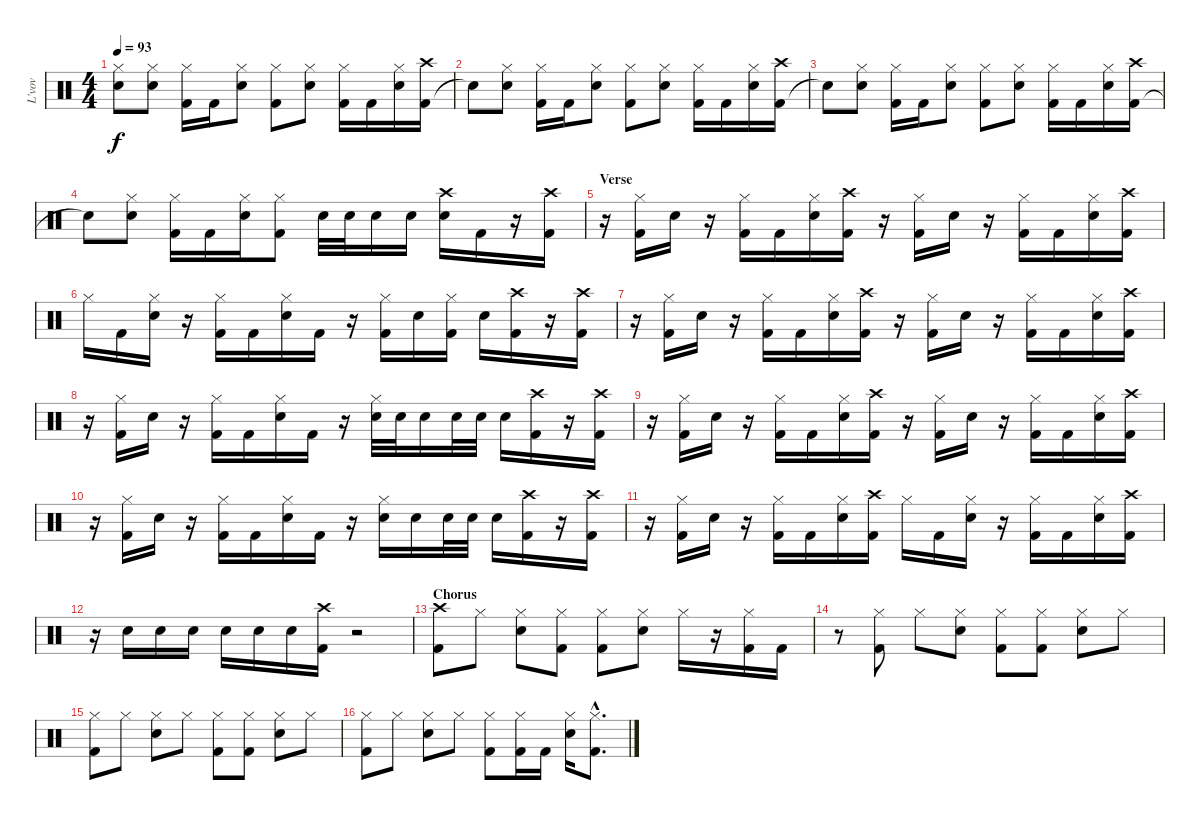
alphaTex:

\track ("L'vov" "L'vov") {instrument percussion}
\staff {score}
\articulation defaults
\ts (4 4)
\tempo 93
\clef neutral
\ks c
("Snare (hit)"{t} "Hi-Hat (closed)").8{dy f} ("Snare (hit) 2" "Hi-Hat (closed)").8 ("Kick (hit) 2" "Hi-Hat (closed)").16 "Kick (hit) 2".16 ("Snare (hit) 2" "Hi-Hat (closed)").8 ("Kick (hit) 2" "Hi-Hat (closed)").8 ("Snare (hit) 2" "Hi-Hat (closed)").8 ("Kick (hit) 2" "Hi-Hat (closed)").16 "Kick (hit) 2".16 ("Snare (hit) 2" "Hi-Hat (closed)").16 ("Kick (hit) 2" "Crash high (hit)").16 |
"Snare (hit)"{t}.8 ("Snare (hit) 2" "Hi-Hat (closed)").8 ("Kick (hit) 2" "Hi-Hat (closed)").16 "Kick (hit) 2".16 ("Snare (hit) 2" "Hi-Hat (closed)").8 ("Kick (hit) 2" "Hi-Hat (closed)").8 ("Snare (hit) 2" "Hi-Hat (closed)").8 ("Kick (hit) 2" "Hi-Hat (closed)").16 "Kick (hit) 2".16 ("Snare (hit) 2" "Hi-Hat (closed)").16 ("Kick (hit) 2" "Crash high (hit)").16 |
"Snare (hit)"{t}.8 ("Snare (hit) 2" "Hi-Hat (closed)").8 ("Kick (hit) 2" "Hi-Hat (closed)").16 "Kick (hit) 2".16 ("Snare (hit) 2" "Hi-Hat (closed)").8 ("Kick (hit) 2" "Hi-Hat (closed)").8 ("Snare (hit) 2" "Hi-Hat (closed)").8 ("Kick (hit) 2" "Hi-Hat (closed)").16 "Kick (hit) 2".16 ("Snare (hit) 2" "Hi-Hat (closed)").16 ("Kick (hit) 2" "Crash high (hit)").16 |
"Snare (hit)"{t}.8 ("Snare (hit) 2" "Hi-Hat (closed)").8 ("Kick (hit) 2" "Hi-Hat (closed)").16 "Kick (hit) 2".16 ("Snare (hit) 2" "Hi-Hat (closed)").16 ("Kick (hit) 2" "Hi-Hat (closed)").8 "Snare (hit) 2".32 "Snare (hit) 2".32 "Snare (hit) 2".16 "Snare (hit) 2".16 ("Snare (hit) 2" "Crash high (hit)").16 "Kick (hit) 2".16 r.16 ("Kick (hit) 2" "Crash high (hit)").16 |
\section ("" "Verse")
r.16 ("Kick (hit) 2" "Hi-Hat (closed)").16 "Snare (hit) 2".16 r.16 ("Kick (hit) 2" "Hi-Hat (closed)").16 "Kick (hit) 2".16 ("Snare (hit) 2" "Hi-Hat (closed)").16 ("Kick (hit) 2" "Crash high (hit)").16 r.16 ("Kick (hit) 2" "Hi-Hat (closed)").16 "Snare (hit) 2".16 r.16 ("Kick (hit) 2" "Hi-Hat (closed)").16 "Kick (hit) 2".16 ("Snare (hit) 2" "Hi-Hat (closed)").16 ("Kick (hit) 2" "Crash high (hit)").16 |
"Hi-Hat (closed)".16 "Kick (hit) 2".16 ("Snare (hit) 2" "Hi-Hat (closed)").16 r.16 ("Kick (hit) 2" "Hi-Hat (closed)").16 "Kick (hit) 2".16 ("Snare (hit) 2" "Hi-Hat (closed)").16 "Kick (hit) 2".16 r.16 ("Kick (hit) 2" "Hi-Hat (closed)").16 "Snare (hit) 2".16 ("Kick (hit) 2" "Hi-Hat (closed)").16 "Snare (hit) 2".16 ("Kick (hit) 2" "Crash high (hit)").16 r.16 ("Kick (hit) 2" "Crash high (hit)").16 |
r.16 ("Kick (hit) 2" "Hi-Hat (closed)").16 "Snare (hit) 2".16 r.16 ("Kick (hit) 2" "Hi-Hat (closed)").16 "Kick (hit) 2".16 ("Snare (hit) 2" "Hi-Hat (closed)").16 ("Kick (hit) 2" "Crash high (hit)").16 r.16 ("Kick (hit) 2" "Hi-Hat (closed)").16 "Snare (hit) 2".16 r.16 ("Kick (hit) 2" "Hi-Hat (closed)").16 "Kick (hit) 2".16 ("Snare (hit) 2" "Hi-Hat (closed)").16 ("Kick (hit) 2" "Crash high (hit)").16 |
r.16 ("Kick (hit) 2" "Hi-Hat (closed)").16 "Snare (hit) 2".16 r.16 ("Kick (hit) 2" "Hi-Hat (closed)").16 "Kick (hit) 2".16 ("Snare (hit) 2" "Hi-Hat (closed)").16 "Kick (hit) 2".16 r.16 ("Snare (hit) 2" "Hi-Hat (closed)").32 "Snare (hit) 2".32 "Snare (hit) 2".16 "Snare (hit) 2".32 "Snare (hit) 2".32 "Snare (hit) 2".16 ("Kick (hit) 2" "Crash high (hit)").16 r.16 ("Kick (hit) 2" "Crash high (hit)").16 |
r.16 ("Kick (hit) 2" "Hi-Hat (closed)").16 "Snare (hit) 2".16 r.16 ("Kick (hit) 2" "Hi-Hat (closed)").16 "Kick (hit) 2".16 ("Snare (hit) 2" "Hi-Hat (closed)").16 ("Kick (hit) 2" "Crash high (hit)").16 r.16 ("Kick (hit) 2" "Hi-Hat (closed)").16 "Snare (hit) 2".16 r.16 ("Kick (hit) 2" "Hi-Hat (closed)").16 "Kick (hit) 2".16 ("Snare (hit) 2" "Hi-Hat (closed)").16 ("Kick (hit) 2" "Crash high (hit)").16 |
r.16 ("Kick (hit) 2" "Hi-Hat (closed)").16 "Snare (hit) 2".16 r.16 ("Kick (hit) 2" "Hi-Hat (closed)").16 "Kick (hit) 2".16 ("Snare (hit) 2" "Hi-Hat (closed)").16 "Kick (hit) 2".16 r.16 ("Snare (hit) 2" "Hi-Hat (closed)").16 "Snare (hit) 2".16 "Snare (hit) 2".32 "Snare (hit) 2".32 "Snare (hit) 2".16 ("Kick (hit) 2" "Crash high (hit)").16 r.16 ("Kick (hit) 2" "Crash high (hit)").16 |
r.16 ("Kick (hit) 2" "Hi-Hat (closed)").16 "Snare (hit) 2".16 r.16 ("Kick (hit) 2" "Hi-Hat (closed)").16 "Kick (hit) 2".16 ("Snare (hit) 2" "Hi-Hat (closed)").16 ("Kick (hit) 2" "Crash high (hit)").16 "Hi-Hat (closed)".16 "Kick (hit) 2".16 ("Snare (hit) 2" "Hi-Hat (closed)").16 r.16 ("Kick (hit) 2" "Hi-Hat (closed)").16 "Kick (hit) 2".16 ("Snare (hit) 2" "Hi-Hat (closed)").16 ("Kick (hit) 2" "Crash high (hit)").16 |
r.16 "Snare (hit) 2".16 "Snare (hit) 2".16 "Snare (hit) 2".16 "Snare (hit) 2".16 "Snare (hit) 2".16 "Snare (hit) 2".16 ("Kick (hit) 2" "Crash high (hit)").16 r.2 |
\section ("" "Chorus")
("Kick (hit) 2" "Crash high (hit)").8 "Hi-Hat (closed)".8 ("Snare (hit) 2" "Hi-Hat (closed)").8 ("Kick (hit) 2" "Hi-Hat (closed)").8 ("Kick (hit) 2" "Hi-Hat (closed)").8 ("Snare (hit) 2" "Hi-Hat (closed)").8 "Hi-Hat (closed)".16 r.16 ("Kick (hit) 2" "Hi-Hat (closed)").16 "Kick (hit) 2".16 |
r.8 ("Kick (hit) 2" "Hi-Hat (closed)").8 "Hi-Hat (closed)".8 ("Snare (hit) 2" "Hi-Hat (closed)").8 ("Kick (hit) 2" "Hi-Hat (closed)").8 ("Kick (hit) 2" "Hi-Hat (closed)").8 ("Snare (hit) 2" "Hi-Hat (closed)").8 "Hi-Hat (closed)".8 |
("Kick (hit) 2" "Hi-Hat (closed)").8 "Hi-Hat (closed)".8 ("Snare (hit) 2" "Hi-Hat (closed)").8 "Hi-Hat (closed)".8 ("Kick (hit) 2" "Hi-Hat (closed)").8 ("Kick (hit) 2" "Hi-Hat (closed)").8 ("Snare (hit) 2" "Hi-Hat (closed)").8 "Hi-Hat (closed)".8 |
("Kick (hit) 2" "Hi-Hat (closed)").8 "Hi-Hat (closed)".8 ("Snare (hit) 2" "Hi-Hat (closed)").8 "Hi-Hat (closed)".8 ("Kick (hit) 2" "Hi-Hat (closed)").8 ("Kick (hit) 2" "Hi-Hat (closed)").16 "Kick (hit) 2".16 ("Snare (hit) 2" "Hi-Hat (closed)").16 ("Kick (hit) 2"{hac} "Hi-Hat (closed)"{hac}).8{d}
